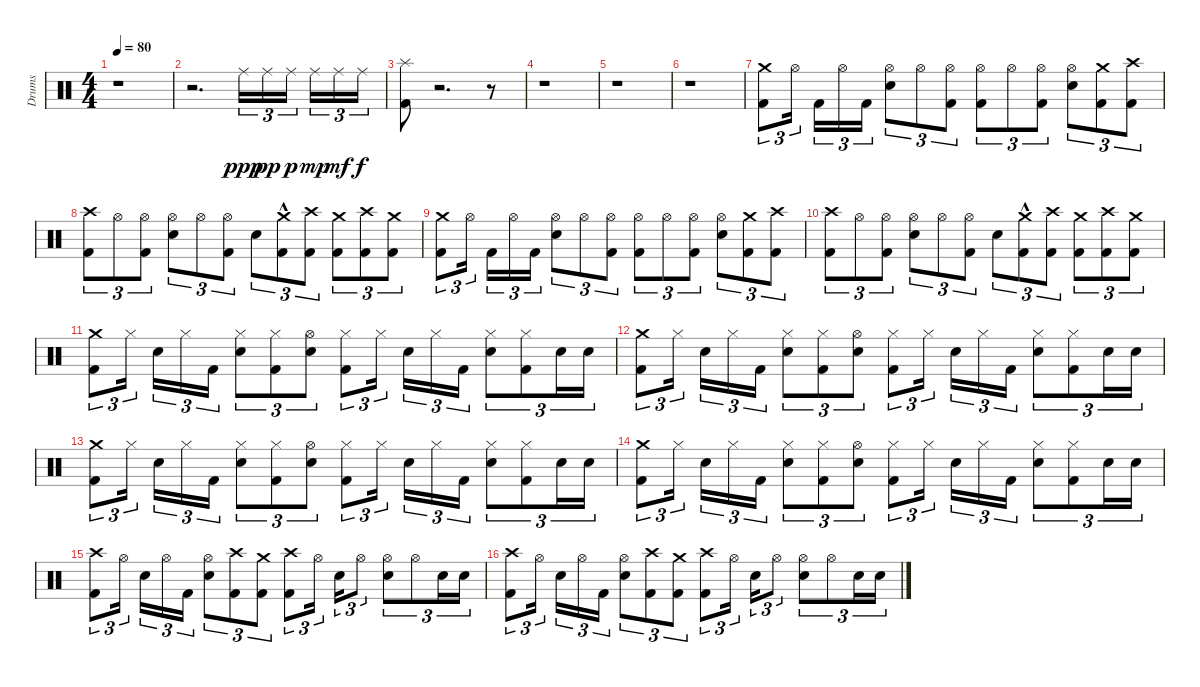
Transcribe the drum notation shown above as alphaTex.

\track ("Drums" "Drums") {instrument percussion}
\staff {score}
\articulation defaults
\ts (4 4)
\tempo 80
\clef neutral
\ks c
r.1{dy ppp} |
r.2{d} "Ride (middle)".16{tu (3 2)} "Ride (middle)".16{tu (3 2) dy pp} "Ride (middle)".16{tu (3 2) dy p} "Ride (middle)".16{tu (3 2) dy mp} "Ride (middle)".16{tu (3 2) dy mf} "Ride (middle)".16{tu (3 2) dy f} |
("Splash (hit)" "Kick (hit) 2").8 r.2{d} r.8 |
r.1 |
r.1 |
r.1 |
("Kick (hit) 2" "Crash medium (hit)").8{tu (3 2)} "Hi-Hat (open)".16{tu (3 2)} "Kick (hit) 2".16{tu (3 2)} "Hi-Hat (open)".16{tu (3 2)} "Kick (hit) 2".16{tu (3 2)} ("Electric Snare (hit)" "Hi-Hat (open)").8{tu (3 2)} "Hi-Hat (open)".8{tu (3 2)} ("Kick (hit) 2" "Hi-Hat (open)").8{tu (3 2)} ("Kick (hit) 2" "Hi-Hat (open)").8{tu (3 2)} "Hi-Hat (open)".8{tu (3 2)} ("Kick (hit) 2" "Hi-Hat (open)").8{tu (3 2)} ("Electric Snare (hit)" "Hi-Hat (open)").8{tu (3 2)} ("Kick (hit) 2" "Crash medium (hit)").8{tu (3 2)} ("Kick (hit) 2" "Crash high (hit)").8{tu (3 2)} |
("Kick (hit) 2" "Crash high (hit)").8{tu (3 2)} "Hi-Hat (open)".8{tu (3 2)} ("Kick (hit) 2" "Hi-Hat (open)").8{tu (3 2)} ("Electric Snare (hit)" "Hi-Hat (open)").8{tu (3 2)} "Hi-Hat (open)".8{tu (3 2)} ("Kick (hit) 2" "Hi-Hat (open)").8{tu (3 2)} "Electric Snare (hit)".8{tu (3 2)} ("Kick (hit) 2" "Crash medium (hit)"{hac}).8{tu (3 2)} ("Kick (hit) 2" "Crash high (hit)").8{tu (3 2)} ("Kick (hit) 2" "Crash medium (hit)").8{tu (3 2)} ("Kick (hit) 2" "Crash high (hit)").8{tu (3 2)} ("Kick (hit) 2" "Crash medium (hit)").8{tu (3 2)} |
("Kick (hit) 2" "Crash medium (hit)").8{tu (3 2)} "Hi-Hat (open)".16{tu (3 2)} "Kick (hit) 2".16{tu (3 2)} "Hi-Hat (open)".16{tu (3 2)} "Kick (hit) 2".16{tu (3 2)} ("Electric Snare (hit)" "Hi-Hat (open)").8{tu (3 2)} "Hi-Hat (open)".8{tu (3 2)} ("Kick (hit) 2" "Hi-Hat (open)").8{tu (3 2)} ("Kick (hit) 2" "Hi-Hat (open)").8{tu (3 2)} "Hi-Hat (open)".8{tu (3 2)} ("Kick (hit) 2" "Hi-Hat (open)").8{tu (3 2)} ("Electric Snare (hit)" "Hi-Hat (open)").8{tu (3 2)} ("Kick (hit) 2" "Crash medium (hit)").8{tu (3 2)} ("Kick (hit) 2" "Crash high (hit)").8{tu (3 2)} |
("Kick (hit) 2" "Crash high (hit)").8{tu (3 2)} "Hi-Hat (open)".8{tu (3 2)} ("Kick (hit) 2" "Hi-Hat (open)").8{tu (3 2)} ("Electric Snare (hit)" "Hi-Hat (open)").8{tu (3 2)} "Hi-Hat (open)".8{tu (3 2)} ("Kick (hit) 2" "Hi-Hat (open)").8{tu (3 2)} "Electric Snare (hit)".8{tu (3 2)} ("Kick (hit) 2" "Crash medium (hit)"{hac}).8{tu (3 2)} ("Kick (hit) 2" "Crash high (hit)").8{tu (3 2)} ("Kick (hit) 2" "Crash medium (hit)").8{tu (3 2)} ("Kick (hit) 2" "Crash high (hit)").8{tu (3 2)} ("Kick (hit) 2" "Crash medium (hit)").8{tu (3 2)} |
("Kick (hit) 2" "Crash medium (hit)").8{tu (3 2)} "Hi-Hat (closed)".16{tu (3 2)} "Electric Snare (hit)".16{tu (3 2)} "Hi-Hat (closed)".16{tu (3 2)} "Kick (hit) 2".16{tu (3 2)} ("Electric Snare (hit)" "Hi-Hat (closed)").8{tu (3 2)} ("Kick (hit) 2" "Hi-Hat (closed)").8{tu (3 2)} ("Electric Snare (hit)" "Hi-Hat (open)").8{tu (3 2)} ("Kick (hit) 2" "Hi-Hat (closed)").8{tu (3 2)} "Hi-Hat (closed)".16{tu (3 2)} "Electric Snare (hit)".16{tu (3 2)} "Hi-Hat (closed)".16{tu (3 2)} "Kick (hit) 2".16{tu (3 2)} ("Electric Snare (hit)" "Hi-Hat (closed)").8{tu (3 2)} ("Kick (hit) 2" "Hi-Hat (closed)").8{tu (3 2)} "Electric Snare (hit)".16{tu (3 2)} "Electric Snare (hit)".16{tu (3 2)} |
("Kick (hit) 2" "Crash medium (hit)").8{tu (3 2)} "Hi-Hat (closed)".16{tu (3 2)} "Electric Snare (hit)".16{tu (3 2)} "Hi-Hat (closed)".16{tu (3 2)} "Kick (hit) 2".16{tu (3 2)} ("Electric Snare (hit)" "Hi-Hat (closed)").8{tu (3 2)} ("Kick (hit) 2" "Hi-Hat (closed)").8{tu (3 2)} ("Electric Snare (hit)" "Hi-Hat (open)").8{tu (3 2)} ("Kick (hit) 2" "Hi-Hat (closed)").8{tu (3 2)} "Hi-Hat (closed)".16{tu (3 2)} "Electric Snare (hit)".16{tu (3 2)} "Hi-Hat (closed)".16{tu (3 2)} "Kick (hit) 2".16{tu (3 2)} ("Electric Snare (hit)" "Hi-Hat (closed)").8{tu (3 2)} ("Kick (hit) 2" "Hi-Hat (closed)").8{tu (3 2)} "Electric Snare (hit)".16{tu (3 2)} "Electric Snare (hit)".16{tu (3 2)} |
("Kick (hit) 2" "Crash medium (hit)").8{tu (3 2)} "Hi-Hat (closed)".16{tu (3 2)} "Electric Snare (hit)".16{tu (3 2)} "Hi-Hat (closed)".16{tu (3 2)} "Kick (hit) 2".16{tu (3 2)} ("Electric Snare (hit)" "Hi-Hat (closed)").8{tu (3 2)} ("Kick (hit) 2" "Hi-Hat (closed)").8{tu (3 2)} ("Electric Snare (hit)" "Hi-Hat (open)").8{tu (3 2)} ("Kick (hit) 2" "Hi-Hat (closed)").8{tu (3 2)} "Hi-Hat (closed)".16{tu (3 2)} "Electric Snare (hit)".16{tu (3 2)} "Hi-Hat (closed)".16{tu (3 2)} "Kick (hit) 2".16{tu (3 2)} ("Electric Snare (hit)" "Hi-Hat (closed)").8{tu (3 2)} ("Kick (hit) 2" "Hi-Hat (closed)").8{tu (3 2)} "Electric Snare (hit)".16{tu (3 2)} "Electric Snare (hit)".16{tu (3 2)} |
("Kick (hit) 2" "Crash medium (hit)").8{tu (3 2)} "Hi-Hat (closed)".16{tu (3 2)} "Electric Snare (hit)".16{tu (3 2)} "Hi-Hat (closed)".16{tu (3 2)} "Kick (hit) 2".16{tu (3 2)} ("Electric Snare (hit)" "Hi-Hat (closed)").8{tu (3 2)} ("Kick (hit) 2" "Hi-Hat (closed)").8{tu (3 2)} ("Electric Snare (hit)" "Hi-Hat (open)").8{tu (3 2)} ("Kick (hit) 2" "Hi-Hat (closed)").8{tu (3 2)} "Hi-Hat (closed)".16{tu (3 2)} "Electric Snare (hit)".16{tu (3 2)} "Hi-Hat (closed)".16{tu (3 2)} "Kick (hit) 2".16{tu (3 2)} ("Electric Snare (hit)" "Hi-Hat (closed)").8{tu (3 2)} ("Kick (hit) 2" "Hi-Hat (closed)").8{tu (3 2)} "Electric Snare (hit)".16{tu (3 2)} "Electric Snare (hit)".16{tu (3 2)} |
("Kick (hit) 2" "Crash high (hit)").8{tu (3 2)} "Hi-Hat (open)".16{tu (3 2)} "Electric Snare (hit)".16{tu (3 2)} "Hi-Hat (open)".16{tu (3 2)} "Kick (hit) 2".16{tu (3 2)} ("Electric Snare (hit)" "Hi-Hat (open)").8{tu (3 2)} ("Kick (hit) 2" "Crash high (hit)").8{tu (3 2)} ("Kick (hit) 2" "Crash medium (hit)").8{tu (3 2)} ("Kick (hit) 2" "Crash high (hit)").8{tu (3 2)} "Hi-Hat (open)".16{tu (3 2)} "Electric Snare (hit)".16{tu (3 2)} "Hi-Hat (open)".8{tu (3 2)} ("Electric Snare (hit)" "Hi-Hat (open)").8{tu (3 2)} "Hi-Hat (open)".8{tu (3 2)} "Electric Snare (hit)".16{tu (3 2)} "Electric Snare (hit)".16{tu (3 2)} |
("Kick (hit) 2" "Crash high (hit)").8{tu (3 2)} "Hi-Hat (open)".16{tu (3 2)} "Electric Snare (hit)".16{tu (3 2)} "Hi-Hat (open)".16{tu (3 2)} "Kick (hit) 2".16{tu (3 2)} ("Electric Snare (hit)" "Hi-Hat (open)").8{tu (3 2)} ("Kick (hit) 2" "Crash high (hit)").8{tu (3 2)} ("Kick (hit) 2" "Crash medium (hit)").8{tu (3 2)} ("Kick (hit) 2" "Crash high (hit)").8{tu (3 2)} "Hi-Hat (open)".16{tu (3 2)} "Electric Snare (hit)".16{tu (3 2)} "Hi-Hat (open)".8{tu (3 2)} ("Electric Snare (hit)" "Hi-Hat (open)").8{tu (3 2)} "Hi-Hat (open)".8{tu (3 2)} "Electric Snare (hit)".16{tu (3 2)} "Electric Snare (hit)".16{tu (3 2)}
